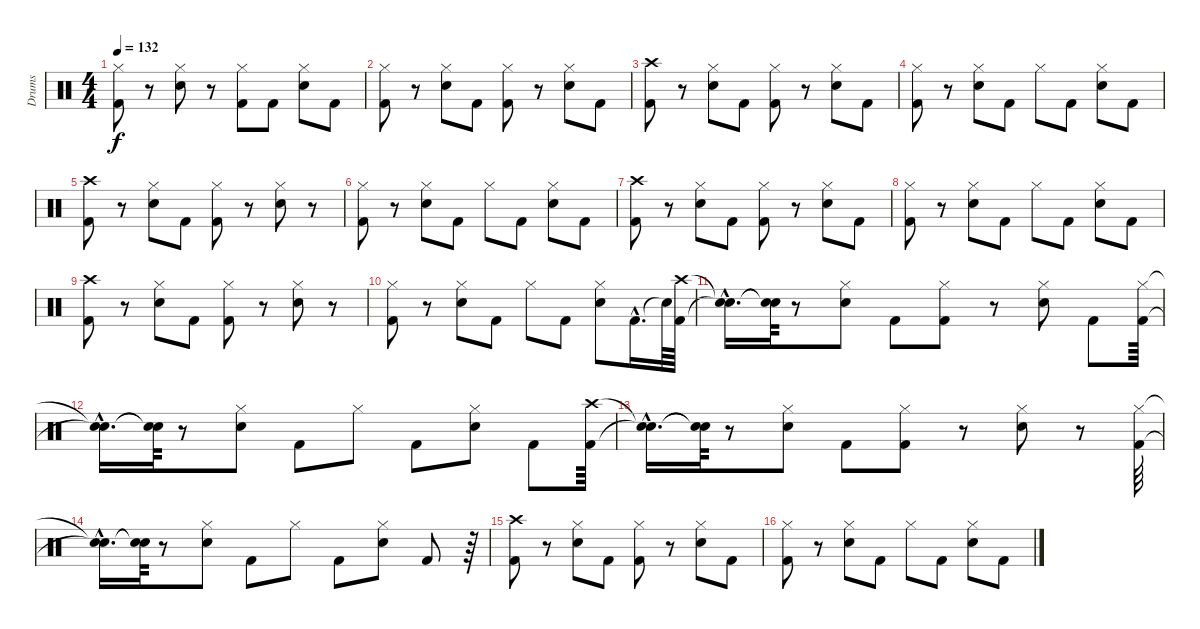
\track ("Drums" "Drums") {instrument percussion}
\staff {score}
\articulation defaults
\ts (4 4)
\tempo 132
\clef neutral
\ks c
("Hi-Hat (closed)" "Kick (hit) 2").8{dy f} r.8 ("Hi-Hat (closed)" "Electric Snare (hit)").8 r.8 ("Hi-Hat (closed)" "Kick (hit) 2").8 "Kick (hit) 2".8 ("Hi-Hat (closed)" "Electric Snare (hit)").8 "Kick (hit) 2".8 |
("Kick (hit) 2" "Hi-Hat (closed)").8 r.8 ("Hi-Hat (closed)" "Electric Snare (hit)").8 "Kick (hit) 2".8 ("Hi-Hat (closed)" "Kick (hit) 2").8 r.8 ("Hi-Hat (closed)" "Electric Snare (hit)").8 "Kick (hit) 2".8 |
("Kick (hit) 2" "Crash high (hit)").8 r.8 ("Electric Snare (hit)" "Hi-Hat (closed)").8 "Kick (hit) 2".8 ("Kick (hit) 2" "Hi-Hat (closed)").8 r.8 ("Electric Snare (hit)" "Hi-Hat (closed)").8 "Kick (hit) 2".8 |
("Hi-Hat (closed)" "Kick (hit) 2").8 r.8 ("Electric Snare (hit)" "Hi-Hat (closed)").8 "Kick (hit) 2".8 "Hi-Hat (closed)".8 "Kick (hit) 2".8 ("Electric Snare (hit)" "Hi-Hat (closed)").8 "Kick (hit) 2".8 |
("Kick (hit) 2" "Crash high (hit)").8 r.8 ("Hi-Hat (closed)" "Electric Snare (hit)").8 "Kick (hit) 2".8 ("Hi-Hat (closed)" "Kick (hit) 2").8 r.8 ("Electric Snare (hit)" "Hi-Hat (closed)").8 r.8 |
("Hi-Hat (closed)" "Kick (hit) 2").8 r.8 ("Electric Snare (hit)" "Hi-Hat (closed)").8 "Kick (hit) 2".8 "Hi-Hat (closed)".8 "Kick (hit) 2".8 ("Electric Snare (hit)" "Hi-Hat (closed)").8 "Kick (hit) 2".8 |
("Kick (hit) 2" "Crash high (hit)").8 r.8 ("Electric Snare (hit)" "Hi-Hat (closed)").8 "Kick (hit) 2".8 ("Kick (hit) 2" "Hi-Hat (closed)").8 r.8 ("Electric Snare (hit)" "Hi-Hat (closed)").8 "Kick (hit) 2".8 |
("Hi-Hat (closed)" "Kick (hit) 2").8 r.8 ("Electric Snare (hit)" "Hi-Hat (closed)").8 "Kick (hit) 2".8 "Hi-Hat (closed)".8 "Kick (hit) 2".8 ("Electric Snare (hit)" "Hi-Hat (closed)").8 "Kick (hit) 2".8 |
("Kick (hit) 2" "Crash high (hit)").8 r.8 ("Hi-Hat (closed)" "Electric Snare (hit)").8 "Kick (hit) 2".8 ("Hi-Hat (closed)" "Kick (hit) 2").8 r.8 ("Electric Snare (hit)" "Hi-Hat (closed)").8 r.8 |
("Hi-Hat (closed)" "Kick (hit) 2").8 r.8 ("Electric Snare (hit)" "Hi-Hat (closed)").8 "Kick (hit) 2".8 "Hi-Hat (closed)".8 "Kick (hit) 2".8 ("Electric Snare (hit)" "Hi-Hat (closed)").8 "Kick (hit) 2"{hac}.16{d} "Snare (hit)"{t}.64 ("Kick (hit) 2" "Crash high (hit)").64 |
("Snare (hit)"{hac t} "Snare (hit)"{hac t}).16{d} ("Snare (hit)"{t} "Snare (hit)"{t}).64 r.8 ("Electric Snare (hit)" "Hi-Hat (closed)").8 "Kick (hit) 2".8 ("Kick (hit) 2" "Hi-Hat (closed)").8 r.8 ("Electric Snare (hit)" "Hi-Hat (closed)").8 "Kick (hit) 2".8 ("Hi-Hat (closed)" "Kick (hit) 2").64 |
("Snare (hit)"{hac t} "Snare (hit)"{hac t}).16{d} ("Snare (hit)"{t} "Snare (hit)"{t}).64 r.8 ("Electric Snare (hit)" "Hi-Hat (closed)").8 "Kick (hit) 2".8 "Hi-Hat (closed)".8 "Kick (hit) 2".8 ("Electric Snare (hit)" "Hi-Hat (closed)").8 "Kick (hit) 2".8 ("Kick (hit) 2" "Crash high (hit)").64 |
("Snare (hit)"{hac t} "Snare (hit)"{hac t}).16{d} ("Snare (hit)"{t} "Snare (hit)"{t}).64 r.8 ("Hi-Hat (closed)" "Electric Snare (hit)").8 "Kick (hit) 2".8 ("Hi-Hat (closed)" "Kick (hit) 2").8 r.8 ("Electric Snare (hit)" "Hi-Hat (closed)").8 r.8 ("Hi-Hat (closed)" "Kick (hit) 2").64 |
("Snare (hit)"{hac t} "Snare (hit)"{hac t}).16{d} ("Snare (hit)"{t} "Snare (hit)"{t}).64 r.8 ("Electric Snare (hit)" "Hi-Hat (closed)").8 "Kick (hit) 2".8 "Hi-Hat (closed)".8 "Kick (hit) 2".8 ("Electric Snare (hit)" "Hi-Hat (closed)").8 "Kick (hit) 2".8 r.64 |
("Kick (hit) 2" "Crash high (hit)").8 r.8 ("Electric Snare (hit)" "Hi-Hat (closed)").8 "Kick (hit) 2".8 ("Kick (hit) 2" "Hi-Hat (closed)").8 r.8 ("Electric Snare (hit)" "Hi-Hat (closed)").8 "Kick (hit) 2".8 |
("Hi-Hat (closed)" "Kick (hit) 2").8 r.8 ("Electric Snare (hit)" "Hi-Hat (closed)").8 "Kick (hit) 2".8 "Hi-Hat (closed)".8 "Kick (hit) 2".8 ("Electric Snare (hit)" "Hi-Hat (closed)").8 "Kick (hit) 2".8
